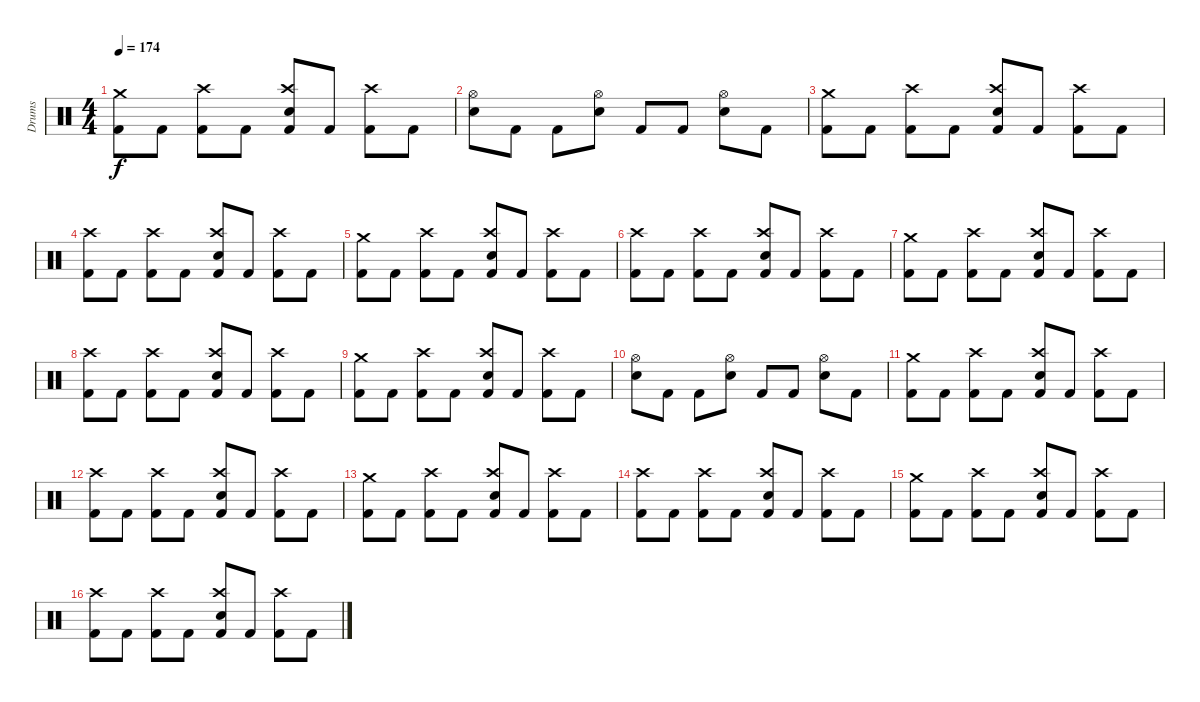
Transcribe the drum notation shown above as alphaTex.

\track ("Drums" "Drums") {instrument percussion}
\staff {score}
\articulation defaults
\ts (4 4)
\tempo 174
\clef neutral
\ks c
("Crash medium (hit)" "Kick (hit) 2").8{dy f} "Kick (hit) 2".8 ("Crash high (hit)" "Kick (hit) 2").8 "Kick (hit) 2".8 ("Crash high (hit)" "Electric Snare (hit)" "Kick (hit) 2").8 "Kick (hit) 2".8 ("Crash high (hit)" "Kick (hit) 2").8 "Kick (hit) 2".8 |
("Hi-Hat (open)" "Electric Snare (hit)").8 "Kick (hit) 2".8 "Kick (hit) 2".8 ("Hi-Hat (open)" "Electric Snare (hit)").8 "Kick (hit) 2".8 "Kick (hit) 2".8 ("Hi-Hat (open)" "Electric Snare (hit)").8 "Kick (hit) 2".8 |
("Crash medium (hit)" "Kick (hit) 2").8 "Kick (hit) 2".8 ("Crash high (hit)" "Kick (hit) 2").8 "Kick (hit) 2".8 ("Crash high (hit)" "Electric Snare (hit)" "Kick (hit) 2").8 "Kick (hit) 2".8 ("Crash high (hit)" "Kick (hit) 2").8 "Kick (hit) 2".8 |
("Crash high (hit)" "Kick (hit) 2").8 "Kick (hit) 2".8 ("Crash high (hit)" "Kick (hit) 2").8 "Kick (hit) 2".8 ("Crash high (hit)" "Electric Snare (hit)" "Kick (hit) 2").8 "Kick (hit) 2".8 ("Crash high (hit)" "Kick (hit) 2").8 "Kick (hit) 2".8 |
("Crash medium (hit)" "Kick (hit) 2").8 "Kick (hit) 2".8 ("Crash high (hit)" "Kick (hit) 2").8 "Kick (hit) 2".8 ("Crash high (hit)" "Electric Snare (hit)" "Kick (hit) 2").8 "Kick (hit) 2".8 ("Crash high (hit)" "Kick (hit) 2").8 "Kick (hit) 2".8 |
("Crash high (hit)" "Kick (hit) 2").8 "Kick (hit) 2".8 ("Crash high (hit)" "Kick (hit) 2").8 "Kick (hit) 2".8 ("Crash high (hit)" "Electric Snare (hit)" "Kick (hit) 2").8 "Kick (hit) 2".8 ("Crash high (hit)" "Kick (hit) 2").8 "Kick (hit) 2".8 |
("Crash medium (hit)" "Kick (hit) 2").8 "Kick (hit) 2".8 ("Crash high (hit)" "Kick (hit) 2").8 "Kick (hit) 2".8 ("Crash high (hit)" "Electric Snare (hit)" "Kick (hit) 2").8 "Kick (hit) 2".8 ("Crash high (hit)" "Kick (hit) 2").8 "Kick (hit) 2".8 |
("Crash high (hit)" "Kick (hit) 2").8 "Kick (hit) 2".8 ("Crash high (hit)" "Kick (hit) 2").8 "Kick (hit) 2".8 ("Crash high (hit)" "Electric Snare (hit)" "Kick (hit) 2").8 "Kick (hit) 2".8 ("Crash high (hit)" "Kick (hit) 2").8 "Kick (hit) 2".8 |
("Crash medium (hit)" "Kick (hit) 2").8 "Kick (hit) 2".8 ("Crash high (hit)" "Kick (hit) 2").8 "Kick (hit) 2".8 ("Crash high (hit)" "Electric Snare (hit)" "Kick (hit) 2").8 "Kick (hit) 2".8 ("Crash high (hit)" "Kick (hit) 2").8 "Kick (hit) 2".8 |
("Hi-Hat (open)" "Electric Snare (hit)").8 "Kick (hit) 2".8 "Kick (hit) 2".8 ("Hi-Hat (open)" "Electric Snare (hit)").8 "Kick (hit) 2".8 "Kick (hit) 2".8 ("Hi-Hat (open)" "Electric Snare (hit)").8 "Kick (hit) 2".8 |
("Crash medium (hit)" "Kick (hit) 2").8 "Kick (hit) 2".8 ("Crash high (hit)" "Kick (hit) 2").8 "Kick (hit) 2".8 ("Crash high (hit)" "Electric Snare (hit)" "Kick (hit) 2").8 "Kick (hit) 2".8 ("Crash high (hit)" "Kick (hit) 2").8 "Kick (hit) 2".8 |
("Crash high (hit)" "Kick (hit) 2").8 "Kick (hit) 2".8 ("Crash high (hit)" "Kick (hit) 2").8 "Kick (hit) 2".8 ("Crash high (hit)" "Electric Snare (hit)" "Kick (hit) 2").8 "Kick (hit) 2".8 ("Crash high (hit)" "Kick (hit) 2").8 "Kick (hit) 2".8 |
("Crash medium (hit)" "Kick (hit) 2").8 "Kick (hit) 2".8 ("Crash high (hit)" "Kick (hit) 2").8 "Kick (hit) 2".8 ("Crash high (hit)" "Electric Snare (hit)" "Kick (hit) 2").8 "Kick (hit) 2".8 ("Crash high (hit)" "Kick (hit) 2").8 "Kick (hit) 2".8 |
("Crash high (hit)" "Kick (hit) 2").8 "Kick (hit) 2".8 ("Crash high (hit)" "Kick (hit) 2").8 "Kick (hit) 2".8 ("Crash high (hit)" "Electric Snare (hit)" "Kick (hit) 2").8 "Kick (hit) 2".8 ("Crash high (hit)" "Kick (hit) 2").8 "Kick (hit) 2".8 |
("Crash medium (hit)" "Kick (hit) 2").8 "Kick (hit) 2".8 ("Crash high (hit)" "Kick (hit) 2").8 "Kick (hit) 2".8 ("Crash high (hit)" "Electric Snare (hit)" "Kick (hit) 2").8 "Kick (hit) 2".8 ("Crash high (hit)" "Kick (hit) 2").8 "Kick (hit) 2".8 |
("Crash high (hit)" "Kick (hit) 2").8 "Kick (hit) 2".8 ("Crash high (hit)" "Kick (hit) 2").8 "Kick (hit) 2".8 ("Crash high (hit)" "Electric Snare (hit)" "Kick (hit) 2").8 "Kick (hit) 2".8 ("Crash high (hit)" "Kick (hit) 2").8 "Kick (hit) 2".8
